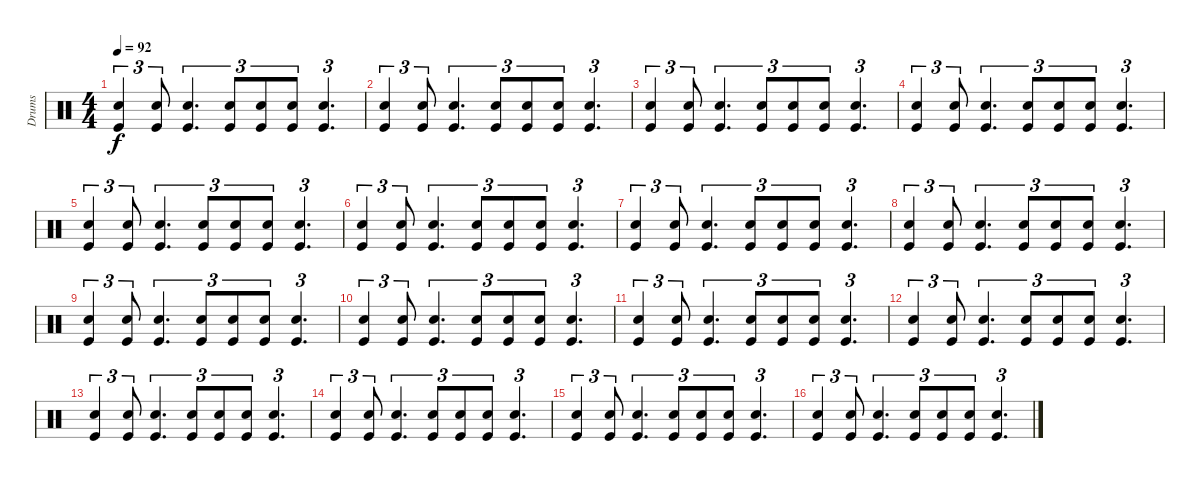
\track ("Drums" "Drums") {instrument percussion}
\staff {score}
\articulation defaults
\ts (4 4)
\tempo 92
\clef neutral
\ks c
("Hand Clap (hit)" "Kick (hit)").4{tu (3 2) dy f} ("Hand Clap (hit)" "Kick (hit)").8{tu (3 2)} ("Hand Clap (hit)" "Kick (hit)").4{d tu (3 2)} ("Hand Clap (hit)" "Kick (hit)").8{tu (3 2)} ("Hand Clap (hit)" "Kick (hit)").8{tu (3 2)} ("Hand Clap (hit)" "Kick (hit)").8{tu (3 2)} ("Hand Clap (hit)" "Kick (hit)").4{d tu (3 2)} |
("Hand Clap (hit)" "Kick (hit)").4{tu (3 2)} ("Hand Clap (hit)" "Kick (hit)").8{tu (3 2)} ("Hand Clap (hit)" "Kick (hit)").4{d tu (3 2)} ("Hand Clap (hit)" "Kick (hit)").8{tu (3 2)} ("Hand Clap (hit)" "Kick (hit)").8{tu (3 2)} ("Hand Clap (hit)" "Kick (hit)").8{tu (3 2)} ("Hand Clap (hit)" "Kick (hit)").4{d tu (3 2)} |
("Hand Clap (hit)" "Kick (hit)").4{tu (3 2)} ("Hand Clap (hit)" "Kick (hit)").8{tu (3 2)} ("Hand Clap (hit)" "Kick (hit)").4{d tu (3 2)} ("Hand Clap (hit)" "Kick (hit)").8{tu (3 2)} ("Hand Clap (hit)" "Kick (hit)").8{tu (3 2)} ("Hand Clap (hit)" "Kick (hit)").8{tu (3 2)} ("Hand Clap (hit)" "Kick (hit)").4{d tu (3 2)} |
("Hand Clap (hit)" "Kick (hit)").4{tu (3 2)} ("Hand Clap (hit)" "Kick (hit)").8{tu (3 2)} ("Hand Clap (hit)" "Kick (hit)").4{d tu (3 2)} ("Hand Clap (hit)" "Kick (hit)").8{tu (3 2)} ("Hand Clap (hit)" "Kick (hit)").8{tu (3 2)} ("Hand Clap (hit)" "Kick (hit)").8{tu (3 2)} ("Hand Clap (hit)" "Kick (hit)").4{d tu (3 2)} |
("Hand Clap (hit)" "Kick (hit)").4{tu (3 2)} ("Hand Clap (hit)" "Kick (hit)").8{tu (3 2)} ("Hand Clap (hit)" "Kick (hit)").4{d tu (3 2)} ("Hand Clap (hit)" "Kick (hit)").8{tu (3 2)} ("Hand Clap (hit)" "Kick (hit)").8{tu (3 2)} ("Hand Clap (hit)" "Kick (hit)").8{tu (3 2)} ("Hand Clap (hit)" "Kick (hit)").4{d tu (3 2)} |
("Hand Clap (hit)" "Kick (hit)").4{tu (3 2)} ("Hand Clap (hit)" "Kick (hit)").8{tu (3 2)} ("Hand Clap (hit)" "Kick (hit)").4{d tu (3 2)} ("Hand Clap (hit)" "Kick (hit)").8{tu (3 2)} ("Hand Clap (hit)" "Kick (hit)").8{tu (3 2)} ("Hand Clap (hit)" "Kick (hit)").8{tu (3 2)} ("Hand Clap (hit)" "Kick (hit)").4{d tu (3 2)} |
("Hand Clap (hit)" "Kick (hit)").4{tu (3 2)} ("Hand Clap (hit)" "Kick (hit)").8{tu (3 2)} ("Hand Clap (hit)" "Kick (hit)").4{d tu (3 2)} ("Hand Clap (hit)" "Kick (hit)").8{tu (3 2)} ("Hand Clap (hit)" "Kick (hit)").8{tu (3 2)} ("Hand Clap (hit)" "Kick (hit)").8{tu (3 2)} ("Hand Clap (hit)" "Kick (hit)").4{d tu (3 2)} |
("Hand Clap (hit)" "Kick (hit)").4{tu (3 2)} ("Hand Clap (hit)" "Kick (hit)").8{tu (3 2)} ("Hand Clap (hit)" "Kick (hit)").4{d tu (3 2)} ("Hand Clap (hit)" "Kick (hit)").8{tu (3 2)} ("Hand Clap (hit)" "Kick (hit)").8{tu (3 2)} ("Hand Clap (hit)" "Kick (hit)").8{tu (3 2)} ("Hand Clap (hit)" "Kick (hit)").4{d tu (3 2)} |
("Hand Clap (hit)" "Kick (hit)").4{tu (3 2)} ("Hand Clap (hit)" "Kick (hit)").8{tu (3 2)} ("Hand Clap (hit)" "Kick (hit)").4{d tu (3 2)} ("Hand Clap (hit)" "Kick (hit)").8{tu (3 2)} ("Hand Clap (hit)" "Kick (hit)").8{tu (3 2)} ("Hand Clap (hit)" "Kick (hit)").8{tu (3 2)} ("Hand Clap (hit)" "Kick (hit)").4{d tu (3 2)} |
("Hand Clap (hit)" "Kick (hit)").4{tu (3 2)} ("Hand Clap (hit)" "Kick (hit)").8{tu (3 2)} ("Hand Clap (hit)" "Kick (hit)").4{d tu (3 2)} ("Hand Clap (hit)" "Kick (hit)").8{tu (3 2)} ("Hand Clap (hit)" "Kick (hit)").8{tu (3 2)} ("Hand Clap (hit)" "Kick (hit)").8{tu (3 2)} ("Hand Clap (hit)" "Kick (hit)").4{d tu (3 2)} |
("Hand Clap (hit)" "Kick (hit)").4{tu (3 2)} ("Hand Clap (hit)" "Kick (hit)").8{tu (3 2)} ("Hand Clap (hit)" "Kick (hit)").4{d tu (3 2)} ("Hand Clap (hit)" "Kick (hit)").8{tu (3 2)} ("Hand Clap (hit)" "Kick (hit)").8{tu (3 2)} ("Hand Clap (hit)" "Kick (hit)").8{tu (3 2)} ("Hand Clap (hit)" "Kick (hit)").4{d tu (3 2)} |
("Hand Clap (hit)" "Kick (hit)").4{tu (3 2)} ("Hand Clap (hit)" "Kick (hit)").8{tu (3 2)} ("Hand Clap (hit)" "Kick (hit)").4{d tu (3 2)} ("Hand Clap (hit)" "Kick (hit)").8{tu (3 2)} ("Hand Clap (hit)" "Kick (hit)").8{tu (3 2)} ("Hand Clap (hit)" "Kick (hit)").8{tu (3 2)} ("Hand Clap (hit)" "Kick (hit)").4{d tu (3 2)} |
("Hand Clap (hit)" "Kick (hit)").4{tu (3 2)} ("Hand Clap (hit)" "Kick (hit)").8{tu (3 2)} ("Hand Clap (hit)" "Kick (hit)").4{d tu (3 2)} ("Hand Clap (hit)" "Kick (hit)").8{tu (3 2)} ("Hand Clap (hit)" "Kick (hit)").8{tu (3 2)} ("Hand Clap (hit)" "Kick (hit)").8{tu (3 2)} ("Hand Clap (hit)" "Kick (hit)").4{d tu (3 2)} |
("Hand Clap (hit)" "Kick (hit)").4{tu (3 2)} ("Hand Clap (hit)" "Kick (hit)").8{tu (3 2)} ("Hand Clap (hit)" "Kick (hit)").4{d tu (3 2)} ("Hand Clap (hit)" "Kick (hit)").8{tu (3 2)} ("Hand Clap (hit)" "Kick (hit)").8{tu (3 2)} ("Hand Clap (hit)" "Kick (hit)").8{tu (3 2)} ("Hand Clap (hit)" "Kick (hit)").4{d tu (3 2)} |
("Hand Clap (hit)" "Kick (hit)").4{tu (3 2)} ("Hand Clap (hit)" "Kick (hit)").8{tu (3 2)} ("Hand Clap (hit)" "Kick (hit)").4{d tu (3 2)} ("Hand Clap (hit)" "Kick (hit)").8{tu (3 2)} ("Hand Clap (hit)" "Kick (hit)").8{tu (3 2)} ("Hand Clap (hit)" "Kick (hit)").8{tu (3 2)} ("Hand Clap (hit)" "Kick (hit)").4{d tu (3 2)} |
("Hand Clap (hit)" "Kick (hit)").4{tu (3 2)} ("Hand Clap (hit)" "Kick (hit)").8{tu (3 2)} ("Hand Clap (hit)" "Kick (hit)").4{d tu (3 2)} ("Hand Clap (hit)" "Kick (hit)").8{tu (3 2)} ("Hand Clap (hit)" "Kick (hit)").8{tu (3 2)} ("Hand Clap (hit)" "Kick (hit)").8{tu (3 2)} ("Hand Clap (hit)" "Kick (hit)").4{d tu (3 2)}
